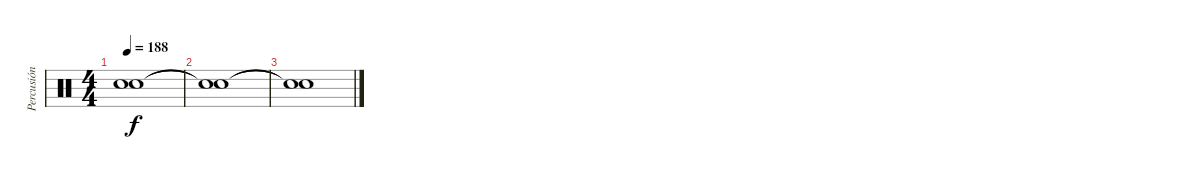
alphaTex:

\track ("Percusión" "Percusión") {instrument percussion}
\staff {score}
\articulation defaults
\ts (4 4)
\tempo 188
\clef neutral
\ks c
("Snare (hit)"{t} "Snare (hit)"{t}).1{dy f} |
("Snare (hit)"{t} "Snare (hit)"{t}).1 |
("Snare (hit)"{t} "Snare (hit)"{t}).1
